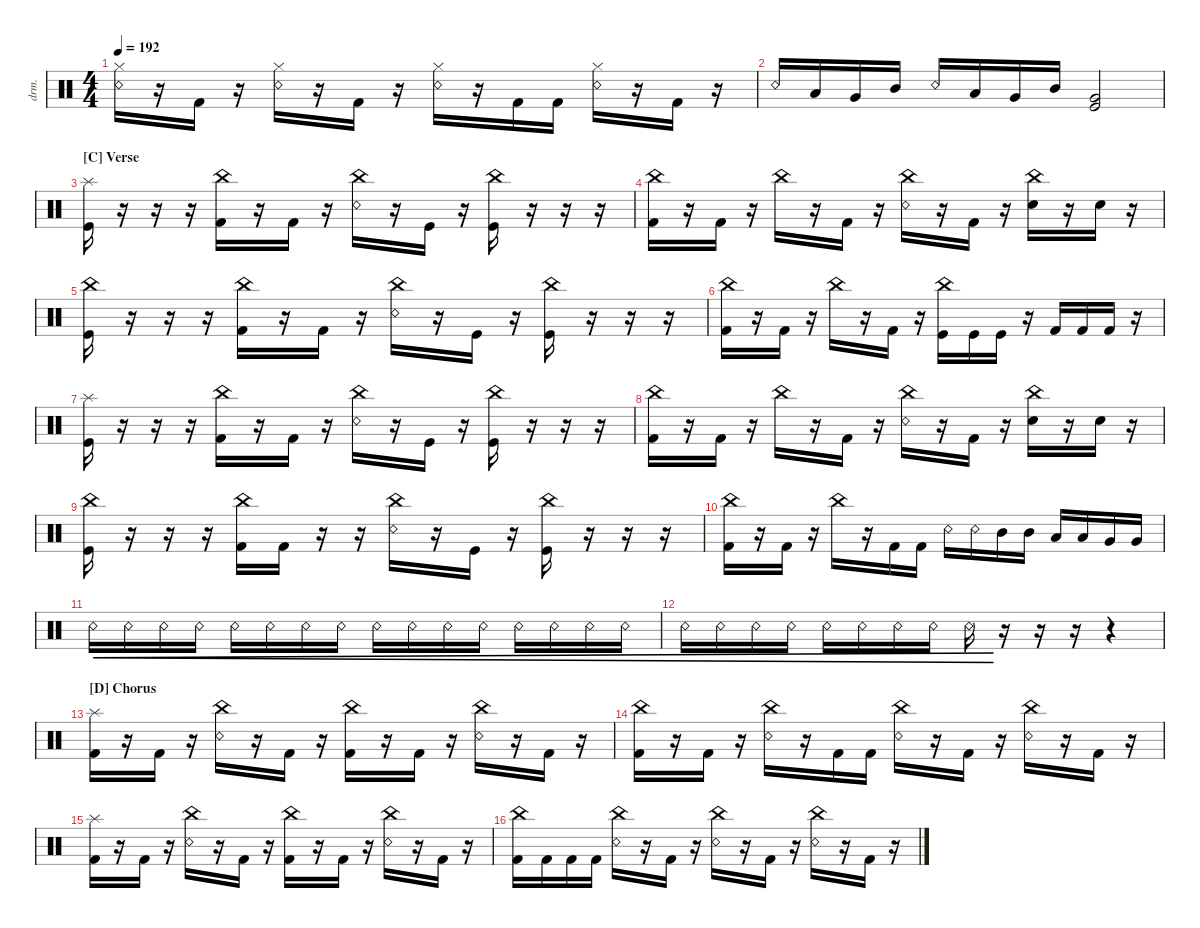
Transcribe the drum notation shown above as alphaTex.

\defaultSystemsLayout 4
\hideDynamics
\bracketExtendMode nobrackets
\otherSystemsTrackNameOrientation horizontal
\track ("Drumkit" "drm.") {instrument percussion}
\staff {score}
\articulation defaults
\ts (4 4)
\tempo 192
\clef neutral
\ks c
("Snare (rim shot)" "Hi-Hat (closed)").16{dy ff beam Down} r.16{beam Down} "Kick (hit) 2".16{beam Down} r.16{beam Down} ("Snare (rim shot)" "Hi-Hat (closed)").16{beam Down} r.16{beam Down} "Kick (hit) 2".16{beam Down} r.16{beam Down} ("Snare (rim shot)" "Hi-Hat (closed)").16{beam Down} r.16{beam Down} "Kick (hit) 2".16{beam Down} "Kick (hit) 2".16{beam Down} ("Snare (rim shot)" "Hi-Hat (closed)").16{beam Down} r.16{beam Down} "Kick (hit) 2".16{beam Down} r.16{beam Down} |
"Snare (rim shot)".16{beam Up} "Low Tom (hit)".16{beam Up} "Very Low Tom (hit)".16{beam Up} "Mid Tom (hit)".16{beam Up} "Snare (rim shot)".16{beam Up} "Low Tom (hit)".16{beam Up} "Very Low Tom (hit)".16{beam Up} "Mid Tom (hit)".16{beam Up} ("Very Low Tom (hit)" "Kick (hit)").2{beam Up} |
\section ("C" "Verse")
("Kick (hit)" "Splash (hit)").16{beam Down} r.16{beam Down} r.16{beam Down} r.16{beam Down} ("China (hit)" "Kick (hit) 2").16{beam Down} r.16{beam Down} "Kick (hit) 2".16{beam Down} r.16{beam Down} ("China (hit)" "Snare (rim shot)").16{beam Down} r.16{beam Down} "Kick (hit)".16{beam Down} r.16{beam Down} ("Kick (hit)" "China (hit)").16{beam Down} r.16{beam Down} r.16{beam Down} r.16{beam Down} |
("Kick (hit) 2" "China (hit)").16{beam Down} r.16{beam Down} "Kick (hit) 2".16{beam Down} r.16{beam Down} "China (hit)".16{beam Down} r.16{beam Down} "Kick (hit) 2".16{beam Down} r.16{beam Down} ("China (hit)" "Snare (rim shot)").16{beam Down} r.16{beam Down} "Kick (hit) 2".16{beam Down} r.16{beam Down} ("China (hit)" "Snare (hit) 2").16{beam Down} r.16{beam Down} "Snare (hit) 2".16{beam Down} r.16{beam Down} |
("China (hit)" "Kick (hit)").16{beam Down} r.16{beam Down} r.16{beam Down} r.16{beam Down} ("China (hit)" "Kick (hit) 2").16{beam Down} r.16{beam Down} "Kick (hit) 2".16{beam Down} r.16{beam Down} ("China (hit)" "Snare (rim shot)").16{beam Down} r.16{beam Down} "Kick (hit)".16{beam Down} r.16{beam Down} ("Kick (hit)" "China (hit)").16{beam Down} r.16{beam Down} r.16{beam Down} r.16{beam Down} |
("Kick (hit) 2" "China (hit)").16{beam Down} r.16{beam Down} "Kick (hit) 2".16{beam Down} r.16{beam Down} "China (hit)".16{beam Down} r.16{beam Down} "Kick (hit) 2".16{beam Down} r.16{beam Down} ("Kick (hit)" "China (hit)").16{beam Down} "Kick (hit)".16{beam Down} "Kick (hit)".16{beam Down} r.16{beam Down} "Kick (hit) 2".16{beam Up} "Kick (hit) 2".16{beam Up} "Kick (hit) 2".16{beam Up} r.16{beam Up} |
("Kick (hit)" "Splash (hit)").16{beam Down} r.16{beam Down} r.16{beam Down} r.16{beam Down} ("China (hit)" "Kick (hit) 2").16{beam Down} r.16{beam Down} "Kick (hit) 2".16{beam Down} r.16{beam Down} ("China (hit)" "Snare (rim shot)").16{beam Down} r.16{beam Down} "Kick (hit)".16{beam Down} r.16{beam Down} ("Kick (hit)" "China (hit)").16{beam Down} r.16{beam Down} r.16{beam Down} r.16{beam Down} |
("Kick (hit) 2" "China (hit)").16{beam Down} r.16{beam Down} "Kick (hit) 2".16{beam Down} r.16{beam Down} "China (hit)".16{beam Down} r.16{beam Down} "Kick (hit) 2".16{beam Down} r.16{beam Down} ("China (hit)" "Snare (rim shot)").16{beam Down} r.16{beam Down} "Kick (hit) 2".16{beam Down} r.16{beam Down} ("China (hit)" "Snare (hit) 2").16{beam Down} r.16{beam Down} "Snare (hit) 2".16{beam Down} r.16{beam Down} |
("China (hit)" "Kick (hit)").16{beam Down} r.16{beam Down} r.16{beam Down} r.16{beam Down} ("China (hit)" "Kick (hit) 2").16{beam Down} "Kick (hit) 2".16{beam Down} r.16{beam Down} r.16{beam Down} ("China (hit)" "Snare (rim shot)").16{beam Down} r.16{beam Down} "Kick (hit)".16{beam Down} r.16{beam Down} ("Kick (hit)" "China (hit)").16{beam Down} r.16{beam Down} r.16{beam Down} r.16{beam Down} |
("Kick (hit) 2" "China (hit)").16{beam Down} r.16{beam Down} "Kick (hit) 2".16{beam Down} r.16{beam Down} "China (hit)".16{beam Down} r.16{beam Down} "Kick (hit) 2".16{beam Down} "Kick (hit) 2".16{beam Down} "Snare (rim shot)".16{beam Down} "Snare (rim shot)".16{beam Down} "Mid Tom (hit)".16{beam Down} "Mid Tom (hit)".16{beam Down} "Low Tom (hit)".16{beam Up} "Low Tom (hit)".16{beam Up} "Very Low Tom (hit)".16{beam Up} "Very Low Tom (hit)".16{beam Up} |
"Snare (rim shot)".16{cre dy pp beam Down} "Snare (rim shot)".16{cre beam Down} "Snare (rim shot)".16{cre beam Down} "Snare (rim shot)".16{cre beam Down} "Snare (rim shot)".16{cre dy p beam Down} "Snare (rim shot)".16{cre beam Down} "Snare (rim shot)".16{cre beam Down} "Snare (rim shot)".16{cre beam Down} "Snare (rim shot)".16{cre dy mp beam Down} "Snare (rim shot)".16{cre beam Down} "Snare (rim shot)".16{cre beam Down} "Snare (rim shot)".16{cre beam Down} "Snare (rim shot)".16{cre dy mf beam Down} "Snare (rim shot)".16{cre beam Down} "Snare (rim shot)".16{cre beam Down} "Snare (rim shot)".16{cre beam Down} |
"Snare (rim shot)".16{cre dy f beam Down} "Snare (rim shot)".16{cre beam Down} "Snare (rim shot)".16{cre beam Down} "Snare (rim shot)".16{cre beam Down} "Snare (rim shot)".16{cre dy ff beam Down} "Snare (rim shot)".16{cre beam Down} "Snare (rim shot)".16{cre beam Down} "Snare (rim shot)".16{cre beam Down} "Snare (rim shot)".16{cre beam Down} r.16{beam Down} r.16{beam Down} r.16{beam Down} r.4{beam Down} |
\section ("D" "Chorus")
("Kick (hit) 2" "Splash (hit)").16{beam Down} r.16{beam Down} "Kick (hit) 2".16{beam Down} r.16{beam Down} ("China (hit)" "Snare (rim shot)").16{beam Down} r.16{beam Down} "Kick (hit) 2".16{beam Down} r.16{beam Down} ("China (hit)" "Kick (hit) 2").16{beam Down} r.16{beam Down} "Kick (hit) 2".16{beam Down} r.16{beam Down} ("China (hit)" "Snare (rim shot)").16{beam Down} r.16{beam Down} "Kick (hit) 2".16{beam Down} r.16{beam Down} |
("Kick (hit) 2" "China (hit)").16{beam Down} r.16{beam Down} "Kick (hit) 2".16{beam Down} r.16{beam Down} ("China (hit)" "Snare (rim shot)").16{beam Down} r.16{beam Down} "Kick (hit) 2".16{beam Down} "Kick (hit) 2".16{beam Down} ("China (hit)" "Snare (rim shot)").16{beam Down} r.16{beam Down} "Kick (hit) 2".16{beam Down} r.16{beam Down} ("China (hit)" "Snare (rim shot)").16{beam Down} r.16{beam Down} "Kick (hit) 2".16{beam Down} r.16{beam Down} |
("Kick (hit) 2" "Splash (hit)").16{beam Down} r.16{beam Down} "Kick (hit) 2".16{beam Down} r.16{beam Down} ("China (hit)" "Snare (rim shot)").16{beam Down} r.16{beam Down} "Kick (hit) 2".16{beam Down} r.16{beam Down} ("China (hit)" "Kick (hit) 2").16{beam Down} r.16{beam Down} "Kick (hit) 2".16{beam Down} r.16{beam Down} ("China (hit)" "Snare (rim shot)").16{beam Down} r.16{beam Down} "Kick (hit) 2".16{beam Down} r.16{beam Down} |
("Kick (hit) 2" "China (hit)").16{beam Down} "Kick (hit) 2".16{beam Down} "Kick (hit) 2".16{beam Down} "Kick (hit) 2".16{beam Down} ("China (hit)" "Snare (rim shot)").16{beam Down} r.16{beam Down} "Kick (hit) 2".16{beam Down} r.16{beam Down} ("China (hit)" "Snare (rim shot)").16{beam Down} r.16{beam Down} "Kick (hit) 2".16{beam Down} r.16{beam Down} ("China (hit)" "Snare (rim shot)").16{beam Down} r.16{beam Down} "Kick (hit) 2".16{beam Down} r.16{beam Down}
